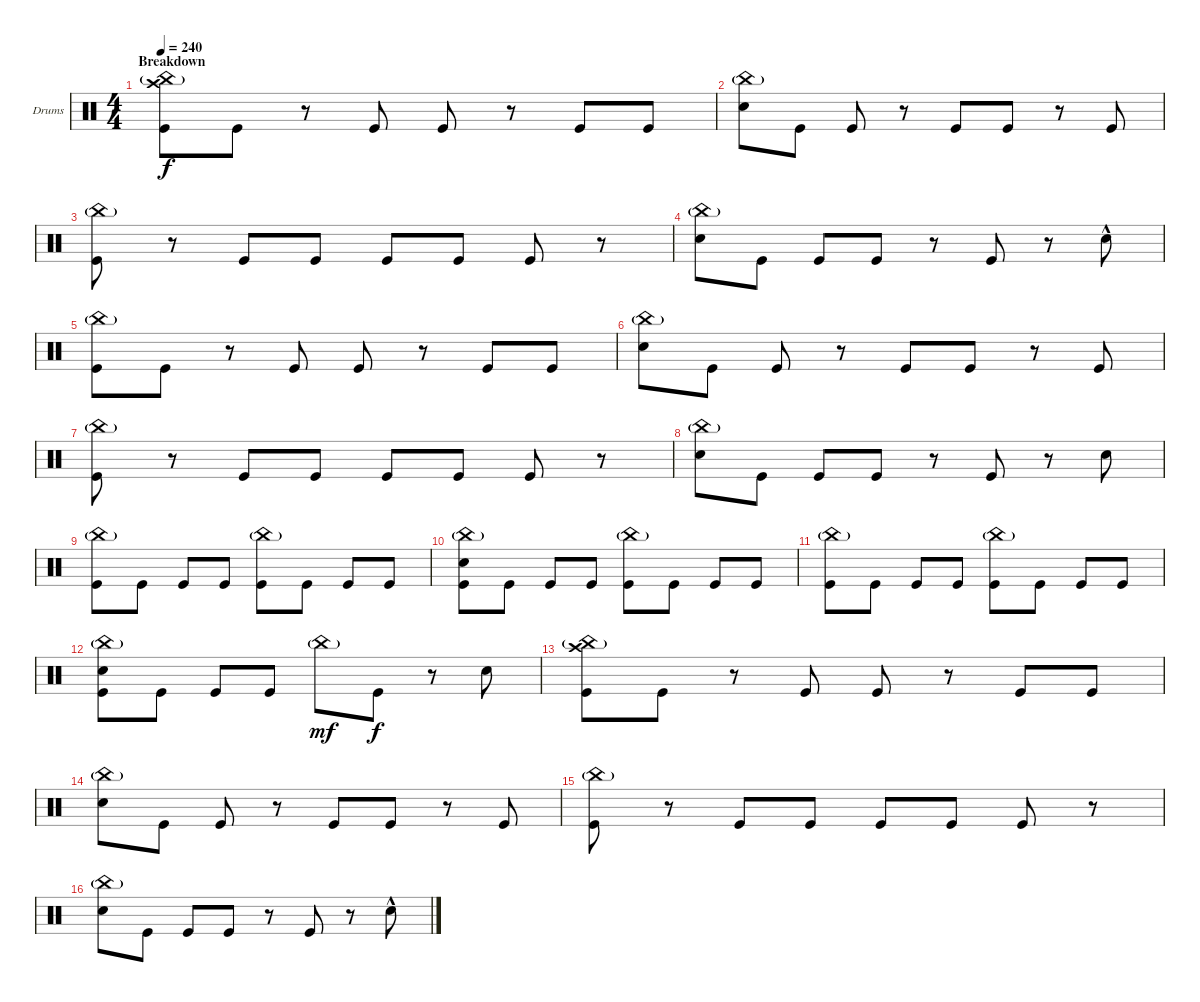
\bracketExtendMode groupsimilarinstruments
\firstSystemTrackNameOrientation horizontal
\otherSystemsTrackNameOrientation horizontal
\track ("Drumkit" "Drums") {instrument percussion}
\staff {score}
\articulation defaults
\ts (4 4)
\section ("" "Breakdown")
\tempo 240
\clef neutral
\ks c
("Crash high (hit)" "China (hit)"{g} "Kick (hit)").8{dy f} "Kick (hit)".8 r.8 "Kick (hit)".8 "Kick (hit)".8 r.8 "Kick (hit)".8 "Kick (hit)".8 |
("China (hit)"{g} "Snare (hit) 2").8 "Kick (hit)".8 "Kick (hit)".8 r.8 "Kick (hit)".8 "Kick (hit)".8 r.8 "Kick (hit)".8 |
("China (hit)"{g} "Kick (hit)").8 r.8 "Kick (hit)".8 "Kick (hit)".8 "Kick (hit)".8 "Kick (hit)".8 "Kick (hit)".8 r.8 |
("China (hit)"{g} "Snare (hit) 2").8 "Kick (hit)".8 "Kick (hit)".8 "Kick (hit)".8 r.8 "Kick (hit)".8 r.8 "Snare (hit) 2"{hac}.8 |
("China (hit)"{g} "Kick (hit)").8 "Kick (hit)".8 r.8 "Kick (hit)".8 "Kick (hit)".8 r.8 "Kick (hit)".8 "Kick (hit)".8 |
("China (hit)"{g} "Snare (hit) 2").8 "Kick (hit)".8 "Kick (hit)".8 r.8 "Kick (hit)".8 "Kick (hit)".8 r.8 "Kick (hit)".8 |
("China (hit)"{g} "Kick (hit)").8 r.8 "Kick (hit)".8 "Kick (hit)".8 "Kick (hit)".8 "Kick (hit)".8 "Kick (hit)".8 r.8 |
("China (hit)"{g} "Snare (hit) 2").8 "Kick (hit)".8 "Kick (hit)".8 "Kick (hit)".8 r.8 "Kick (hit)".8 r.8 "Snare (hit) 2".8 |
("China (hit)"{g} "Kick (hit)").8 "Kick (hit)".8 "Kick (hit)".8 "Kick (hit)".8 ("China (hit)"{g} "Kick (hit)").8 "Kick (hit)".8 "Kick (hit)".8 "Kick (hit)".8 |
("China (hit)"{g} "Snare (hit) 2" "Kick (hit)").8 "Kick (hit)".8 "Kick (hit)".8 "Kick (hit)".8 ("China (hit)"{g} "Kick (hit)").8 "Kick (hit)".8 "Kick (hit)".8 "Kick (hit)".8 |
("China (hit)"{g} "Kick (hit)").8 "Kick (hit)".8 "Kick (hit)".8 "Kick (hit)".8 ("China (hit)"{g} "Kick (hit)").8 "Kick (hit)".8 "Kick (hit)".8 "Kick (hit)".8 |
("China (hit)"{g} "Snare (hit) 2" "Kick (hit)").8 "Kick (hit)".8 "Kick (hit)".8 "Kick (hit)".8 "China (hit)"{g}.8{dy mf} "Kick (hit)".8{dy f} r.8 "Snare (hit) 2".8 |
("Crash high (hit)" "China (hit)"{g} "Kick (hit)").8 "Kick (hit)".8 r.8 "Kick (hit)".8 "Kick (hit)".8 r.8 "Kick (hit)".8 "Kick (hit)".8 |
("China (hit)"{g} "Snare (hit) 2").8 "Kick (hit)".8 "Kick (hit)".8 r.8 "Kick (hit)".8 "Kick (hit)".8 r.8 "Kick (hit)".8 |
("China (hit)"{g} "Kick (hit)").8 r.8 "Kick (hit)".8 "Kick (hit)".8 "Kick (hit)".8 "Kick (hit)".8 "Kick (hit)".8 r.8 |
("China (hit)"{g} "Snare (hit) 2").8 "Kick (hit)".8 "Kick (hit)".8 "Kick (hit)".8 r.8 "Kick (hit)".8 r.8 "Snare (hit) 2"{hac}.8
